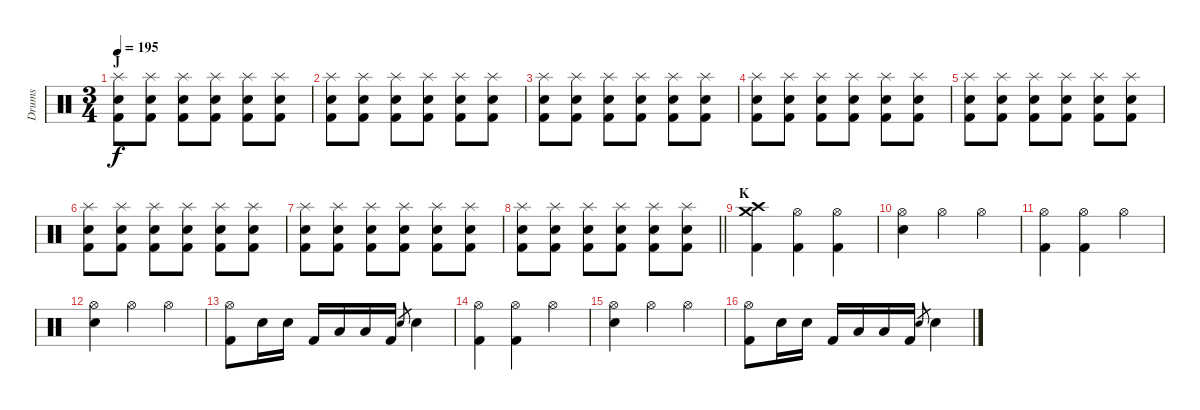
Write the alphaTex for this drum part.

\track ("Drums" "Drums") {instrument percussion}
\staff {score}
\articulation defaults
\ts (3 4)
\section ("" "J")
\tempo 195
\clef neutral
\ks c
("Splash (hit)" "Electric Snare (hit)" "Kick (hit) 2").8{dy f} ("Splash (hit)" "Electric Snare (hit)" "Kick (hit) 2").8 ("Splash (hit)" "Electric Snare (hit)" "Kick (hit) 2").8 ("Splash (hit)" "Electric Snare (hit)" "Kick (hit) 2").8 ("Splash (hit)" "Electric Snare (hit)" "Kick (hit) 2").8 ("Splash (hit)" "Electric Snare (hit)" "Kick (hit) 2").8 |
("Splash (hit)" "Electric Snare (hit)" "Kick (hit) 2").8 ("Splash (hit)" "Electric Snare (hit)" "Kick (hit) 2").8 ("Splash (hit)" "Electric Snare (hit)" "Kick (hit) 2").8 ("Splash (hit)" "Electric Snare (hit)" "Kick (hit) 2").8 ("Splash (hit)" "Electric Snare (hit)" "Kick (hit) 2").8 ("Splash (hit)" "Electric Snare (hit)" "Kick (hit) 2").8 |
("Splash (hit)" "Electric Snare (hit)" "Kick (hit) 2").8 ("Splash (hit)" "Electric Snare (hit)" "Kick (hit) 2").8 ("Splash (hit)" "Electric Snare (hit)" "Kick (hit) 2").8 ("Splash (hit)" "Electric Snare (hit)" "Kick (hit) 2").8 ("Splash (hit)" "Electric Snare (hit)" "Kick (hit) 2").8 ("Splash (hit)" "Electric Snare (hit)" "Kick (hit) 2").8 |
("Splash (hit)" "Electric Snare (hit)" "Kick (hit) 2").8 ("Splash (hit)" "Electric Snare (hit)" "Kick (hit) 2").8 ("Splash (hit)" "Electric Snare (hit)" "Kick (hit) 2").8 ("Splash (hit)" "Electric Snare (hit)" "Kick (hit) 2").8 ("Splash (hit)" "Electric Snare (hit)" "Kick (hit) 2").8 ("Splash (hit)" "Electric Snare (hit)" "Kick (hit) 2").8 |
("Splash (hit)" "Electric Snare (hit)" "Kick (hit) 2").8 ("Splash (hit)" "Electric Snare (hit)" "Kick (hit) 2").8 ("Splash (hit)" "Electric Snare (hit)" "Kick (hit) 2").8 ("Splash (hit)" "Electric Snare (hit)" "Kick (hit) 2").8 ("Splash (hit)" "Electric Snare (hit)" "Kick (hit) 2").8 ("Splash (hit)" "Electric Snare (hit)" "Kick (hit) 2").8 |
("Splash (hit)" "Electric Snare (hit)" "Kick (hit) 2").8 ("Splash (hit)" "Electric Snare (hit)" "Kick (hit) 2").8 ("Splash (hit)" "Electric Snare (hit)" "Kick (hit) 2").8 ("Splash (hit)" "Electric Snare (hit)" "Kick (hit) 2").8 ("Splash (hit)" "Electric Snare (hit)" "Kick (hit) 2").8 ("Splash (hit)" "Electric Snare (hit)" "Kick (hit) 2").8 |
("Splash (hit)" "Electric Snare (hit)" "Kick (hit) 2").8 ("Splash (hit)" "Electric Snare (hit)" "Kick (hit) 2").8 ("Splash (hit)" "Electric Snare (hit)" "Kick (hit) 2").8 ("Splash (hit)" "Electric Snare (hit)" "Kick (hit) 2").8 ("Splash (hit)" "Electric Snare (hit)" "Kick (hit) 2").8 ("Splash (hit)" "Electric Snare (hit)" "Kick (hit) 2").8 |
\barLineRight lightlight
("Splash (hit)" "Electric Snare (hit)" "Kick (hit) 2").8 ("Splash (hit)" "Electric Snare (hit)" "Kick (hit) 2").8 ("Splash (hit)" "Electric Snare (hit)" "Kick (hit) 2").8 ("Splash (hit)" "Electric Snare (hit)" "Kick (hit) 2").8 ("Splash (hit)" "Electric Snare (hit)" "Kick (hit) 2").8 ("Splash (hit)" "Electric Snare (hit)" "Kick (hit) 2").8 |
\section ("" "K")
("Crash medium (hit)" "Crash high (hit)" "Kick (hit) 2").4 ("Hi-Hat (open)" "Kick (hit) 2").4 ("Hi-Hat (open)" "Kick (hit) 2").4 |
("Hi-Hat (open)" "Electric Snare (hit)").4 "Hi-Hat (open)".4 "Hi-Hat (open)".4 |
("Hi-Hat (open)" "Kick (hit) 2").4 ("Hi-Hat (open)" "Kick (hit) 2").4 "Hi-Hat (open)".4 |
("Hi-Hat (open)" "Electric Snare (hit)").4 "Hi-Hat (open)".4 "Hi-Hat (open)".4 |
("Hi-Hat (open)" "Kick (hit) 2").8 "Electric Snare (hit)".16 "Electric Snare (hit)".16 "Kick (hit) 2".16 "Low Tom (hit)".16 "Low Tom (hit)".16 "Kick (hit) 2".16 "Electric Snare (hit)".8{gr} "Electric Snare (hit)".4 |
("Hi-Hat (open)" "Kick (hit) 2").4 ("Hi-Hat (open)" "Kick (hit) 2").4 "Hi-Hat (open)".4 |
("Hi-Hat (open)" "Electric Snare (hit)").4 "Hi-Hat (open)".4 "Hi-Hat (open)".4 |
("Hi-Hat (open)" "Kick (hit) 2").8 "Electric Snare (hit)".16 "Electric Snare (hit)".16 "Kick (hit) 2".16 "Low Tom (hit)".16 "Low Tom (hit)".16 "Kick (hit) 2".16 "Electric Snare (hit)".8{gr} "Electric Snare (hit)".4
